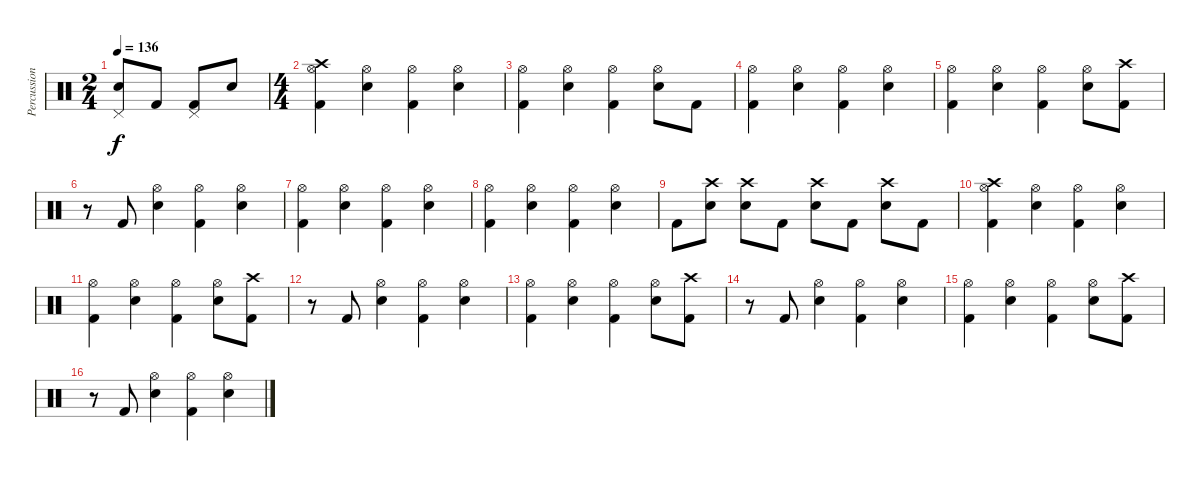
\track ("Percussion" "Percussion") {instrument percussion}
\staff {score}
\articulation defaults
\ts (2 4)
\tempo 136
\clef neutral
\ks c
("Snare (hit) 2" "Pedal Hi-Hat (hit)").8{dy f} "Kick (hit) 2".8 ("Kick (hit) 2" "Pedal Hi-Hat (hit)").8 "Snare (hit) 2".8 |
\ts (4 4)
("Kick (hit) 2" "Hi-Hat (open)" "Crash high (hit)").4 ("Snare (hit) 2" "Hi-Hat (open)").4 ("Kick (hit) 2" "Hi-Hat (open)").4 ("Snare (hit) 2" "Hi-Hat (open)").4 |
("Kick (hit) 2" "Hi-Hat (open)").4 ("Snare (hit) 2" "Hi-Hat (open)").4 ("Kick (hit) 2" "Hi-Hat (open)").4 ("Snare (hit) 2" "Hi-Hat (open)").8 "Kick (hit) 2".8 |
("Kick (hit) 2" "Hi-Hat (open)").4 ("Snare (hit) 2" "Hi-Hat (open)").4 ("Kick (hit) 2" "Hi-Hat (open)").4 ("Snare (hit) 2" "Hi-Hat (open)").4 |
("Kick (hit) 2" "Hi-Hat (open)").4 ("Snare (hit) 2" "Hi-Hat (open)").4 ("Kick (hit) 2" "Hi-Hat (open)").4 ("Snare (hit) 2" "Hi-Hat (open)").8 ("Kick (hit) 2" "Crash high (hit)").8 |
r.8 "Kick (hit) 2".8 ("Snare (hit) 2" "Hi-Hat (open)").4 ("Kick (hit) 2" "Hi-Hat (open)").4 ("Snare (hit) 2" "Hi-Hat (open)").4 |
("Kick (hit) 2" "Hi-Hat (open)").4 ("Snare (hit) 2" "Hi-Hat (open)").4 ("Kick (hit) 2" "Hi-Hat (open)").4 ("Snare (hit) 2" "Hi-Hat (open)").4 |
("Kick (hit) 2" "Hi-Hat (open)").4 ("Snare (hit) 2" "Hi-Hat (open)").4 ("Kick (hit) 2" "Hi-Hat (open)").4 ("Snare (hit) 2" "Hi-Hat (open)").4 |
"Kick (hit) 2".8 ("Snare (hit) 2" "Crash high (hit)").8 ("Snare (hit) 2" "Crash high (hit)").8 "Kick (hit) 2".8 ("Snare (hit) 2" "Crash high (hit)").8 "Kick (hit) 2".8 ("Snare (hit) 2" "Crash high (hit)").8 "Kick (hit) 2".8 |
("Kick (hit) 2" "Hi-Hat (open)" "Crash high (hit)").4 ("Snare (hit) 2" "Hi-Hat (open)").4 ("Kick (hit) 2" "Hi-Hat (open)").4 ("Snare (hit) 2" "Hi-Hat (open)").4 |
("Kick (hit) 2" "Hi-Hat (open)").4 ("Snare (hit) 2" "Hi-Hat (open)").4 ("Kick (hit) 2" "Hi-Hat (open)").4 ("Snare (hit) 2" "Hi-Hat (open)").8 ("Kick (hit) 2" "Crash high (hit)").8 |
r.8 "Kick (hit) 2".8 ("Snare (hit) 2" "Hi-Hat (open)").4 ("Kick (hit) 2" "Hi-Hat (open)").4 ("Snare (hit) 2" "Hi-Hat (open)").4 |
("Kick (hit) 2" "Hi-Hat (open)").4 ("Snare (hit) 2" "Hi-Hat (open)").4 ("Kick (hit) 2" "Hi-Hat (open)").4 ("Snare (hit) 2" "Hi-Hat (open)").8 ("Kick (hit) 2" "Crash high (hit)").8 |
r.8 "Kick (hit) 2".8 ("Snare (hit) 2" "Hi-Hat (open)").4 ("Kick (hit) 2" "Hi-Hat (open)").4 ("Snare (hit) 2" "Hi-Hat (open)").4 |
("Kick (hit) 2" "Hi-Hat (open)").4 ("Snare (hit) 2" "Hi-Hat (open)").4 ("Kick (hit) 2" "Hi-Hat (open)").4 ("Snare (hit) 2" "Hi-Hat (open)").8 ("Kick (hit) 2" "Crash high (hit)").8 |
r.8 "Kick (hit) 2".8 ("Snare (hit) 2" "Hi-Hat (open)").4 ("Kick (hit) 2" "Hi-Hat (open)").4 ("Snare (hit) 2" "Hi-Hat (open)").4
